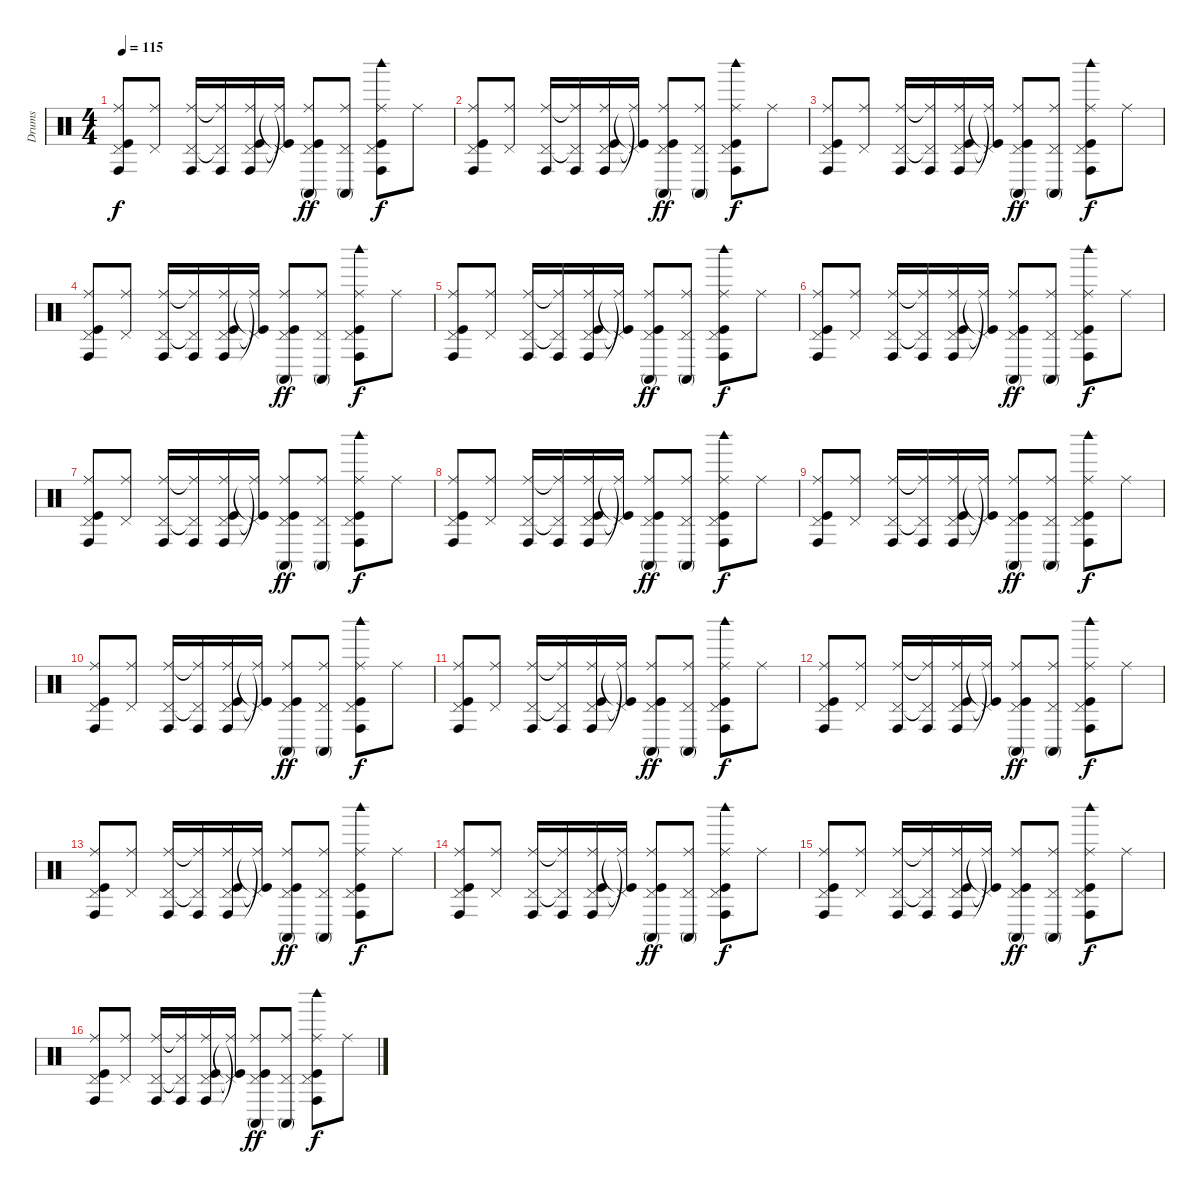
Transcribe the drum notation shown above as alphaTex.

\track ("Drums" "Drums") {instrument percussion}
\staff {score}
\articulation defaults
\ts (4 4)
\tempo 115
\clef neutral
\ks c
("Pedal Hi-Hat (hit)" "Conga high (hit)" "Ride (middle)" "Kick (hit)").8{dy f} ("Pedal Hi-Hat (hit)" "Ride (middle)").8 ("Pedal Hi-Hat (hit)" "Conga high (hit)" "Ride (middle)").16 ("Pedal Hi-Hat (hit)"{t} "Conga high (hit)" "Ride (middle)"{t}).16 ("Pedal Hi-Hat (hit)" "Conga high (hit)" "Ride (middle)" "Kick (hit)").16 ("Pedal Hi-Hat (hit)"{t} "Ride (middle)"{t} "Kick (hit)"{t}).16 ("Pedal Hi-Hat (hit)" "Conga high (mute)" "Ride (middle)" "Kick (hit)").8{dy ff} ("Pedal Hi-Hat (hit)" "Conga high (mute)" "Ride (middle)").8 ("Pedal Hi-Hat (hit)" "Conga high (hit)" "Woodblock high (hit)" "Ride (middle)" "Kick (hit)").8{dy f} "Ride (middle)".8 |
("Pedal Hi-Hat (hit)" "Conga high (hit)" "Ride (middle)" "Kick (hit)").8 ("Pedal Hi-Hat (hit)" "Ride (middle)").8 ("Pedal Hi-Hat (hit)" "Conga high (hit)" "Ride (middle)").16 ("Pedal Hi-Hat (hit)"{t} "Conga high (hit)" "Ride (middle)"{t}).16 ("Pedal Hi-Hat (hit)" "Conga high (hit)" "Ride (middle)" "Kick (hit)").16 ("Pedal Hi-Hat (hit)"{t} "Ride (middle)"{t} "Kick (hit)"{t}).16 ("Pedal Hi-Hat (hit)" "Conga high (mute)" "Ride (middle)" "Kick (hit)").8{dy ff} ("Pedal Hi-Hat (hit)" "Conga high (mute)" "Ride (middle)").8 ("Pedal Hi-Hat (hit)" "Conga high (hit)" "Woodblock high (hit)" "Ride (middle)" "Kick (hit)").8{dy f} "Ride (middle)".8 |
("Pedal Hi-Hat (hit)" "Conga high (hit)" "Ride (middle)" "Kick (hit)").8 ("Pedal Hi-Hat (hit)" "Ride (middle)").8 ("Pedal Hi-Hat (hit)" "Conga high (hit)" "Ride (middle)").16 ("Pedal Hi-Hat (hit)"{t} "Conga high (hit)" "Ride (middle)"{t}).16 ("Pedal Hi-Hat (hit)" "Conga high (hit)" "Ride (middle)" "Kick (hit)").16 ("Pedal Hi-Hat (hit)"{t} "Ride (middle)"{t} "Kick (hit)"{t}).16 ("Pedal Hi-Hat (hit)" "Conga high (mute)" "Ride (middle)" "Kick (hit)").8{dy ff} ("Pedal Hi-Hat (hit)" "Conga high (mute)" "Ride (middle)").8 ("Pedal Hi-Hat (hit)" "Conga high (hit)" "Woodblock high (hit)" "Ride (middle)" "Kick (hit)").8{dy f} "Ride (middle)".8 |
("Pedal Hi-Hat (hit)" "Conga high (hit)" "Ride (middle)" "Kick (hit)").8 ("Pedal Hi-Hat (hit)" "Ride (middle)").8 ("Pedal Hi-Hat (hit)" "Conga high (hit)" "Ride (middle)").16 ("Pedal Hi-Hat (hit)"{t} "Conga high (hit)" "Ride (middle)"{t}).16 ("Pedal Hi-Hat (hit)" "Conga high (hit)" "Ride (middle)" "Kick (hit)").16 ("Pedal Hi-Hat (hit)"{t} "Ride (middle)"{t} "Kick (hit)"{t}).16 ("Pedal Hi-Hat (hit)" "Conga high (mute)" "Ride (middle)" "Kick (hit)").8{dy ff} ("Pedal Hi-Hat (hit)" "Conga high (mute)" "Ride (middle)").8 ("Pedal Hi-Hat (hit)" "Conga high (hit)" "Woodblock high (hit)" "Ride (middle)" "Kick (hit)").8{dy f} "Ride (middle)".8 |
("Pedal Hi-Hat (hit)" "Conga high (hit)" "Ride (middle)" "Kick (hit)").8 ("Pedal Hi-Hat (hit)" "Ride (middle)").8 ("Pedal Hi-Hat (hit)" "Conga high (hit)" "Ride (middle)").16 ("Pedal Hi-Hat (hit)"{t} "Conga high (hit)" "Ride (middle)"{t}).16 ("Pedal Hi-Hat (hit)" "Conga high (hit)" "Ride (middle)" "Kick (hit)").16 ("Pedal Hi-Hat (hit)"{t} "Ride (middle)"{t} "Kick (hit)"{t}).16 ("Pedal Hi-Hat (hit)" "Conga high (mute)" "Ride (middle)" "Kick (hit)").8{dy ff} ("Pedal Hi-Hat (hit)" "Conga high (mute)" "Ride (middle)").8 ("Pedal Hi-Hat (hit)" "Conga high (hit)" "Woodblock high (hit)" "Ride (middle)" "Kick (hit)").8{dy f} "Ride (middle)".8 |
("Pedal Hi-Hat (hit)" "Conga high (hit)" "Ride (middle)" "Kick (hit)").8 ("Pedal Hi-Hat (hit)" "Ride (middle)").8 ("Pedal Hi-Hat (hit)" "Conga high (hit)" "Ride (middle)").16 ("Pedal Hi-Hat (hit)"{t} "Conga high (hit)" "Ride (middle)"{t}).16 ("Pedal Hi-Hat (hit)" "Conga high (hit)" "Ride (middle)" "Kick (hit)").16 ("Pedal Hi-Hat (hit)"{t} "Ride (middle)"{t} "Kick (hit)"{t}).16 ("Pedal Hi-Hat (hit)" "Conga high (mute)" "Ride (middle)" "Kick (hit)").8{dy ff} ("Pedal Hi-Hat (hit)" "Conga high (mute)" "Ride (middle)").8 ("Pedal Hi-Hat (hit)" "Conga high (hit)" "Woodblock high (hit)" "Ride (middle)" "Kick (hit)").8{dy f} "Ride (middle)".8 |
("Pedal Hi-Hat (hit)" "Conga high (hit)" "Ride (middle)" "Kick (hit)").8 ("Pedal Hi-Hat (hit)" "Ride (middle)").8 ("Pedal Hi-Hat (hit)" "Conga high (hit)" "Ride (middle)").16 ("Pedal Hi-Hat (hit)"{t} "Conga high (hit)" "Ride (middle)"{t}).16 ("Pedal Hi-Hat (hit)" "Conga high (hit)" "Ride (middle)" "Kick (hit)").16 ("Pedal Hi-Hat (hit)"{t} "Ride (middle)"{t} "Kick (hit)"{t}).16 ("Pedal Hi-Hat (hit)" "Conga high (mute)" "Ride (middle)" "Kick (hit)").8{dy ff} ("Pedal Hi-Hat (hit)" "Conga high (mute)" "Ride (middle)").8 ("Pedal Hi-Hat (hit)" "Conga high (hit)" "Woodblock high (hit)" "Ride (middle)" "Kick (hit)").8{dy f} "Ride (middle)".8 |
("Pedal Hi-Hat (hit)" "Conga high (hit)" "Ride (middle)" "Kick (hit)").8 ("Pedal Hi-Hat (hit)" "Ride (middle)").8 ("Pedal Hi-Hat (hit)" "Conga high (hit)" "Ride (middle)").16 ("Pedal Hi-Hat (hit)"{t} "Conga high (hit)" "Ride (middle)"{t}).16 ("Pedal Hi-Hat (hit)" "Conga high (hit)" "Ride (middle)" "Kick (hit)").16 ("Pedal Hi-Hat (hit)"{t} "Ride (middle)"{t} "Kick (hit)"{t}).16 ("Pedal Hi-Hat (hit)" "Conga high (mute)" "Ride (middle)" "Kick (hit)").8{dy ff} ("Pedal Hi-Hat (hit)" "Conga high (mute)" "Ride (middle)").8 ("Pedal Hi-Hat (hit)" "Conga high (hit)" "Woodblock high (hit)" "Ride (middle)" "Kick (hit)").8{dy f} "Ride (middle)".8 |
("Pedal Hi-Hat (hit)" "Conga high (hit)" "Ride (middle)" "Kick (hit)").8 ("Pedal Hi-Hat (hit)" "Ride (middle)").8 ("Pedal Hi-Hat (hit)" "Conga high (hit)" "Ride (middle)").16 ("Pedal Hi-Hat (hit)"{t} "Conga high (hit)" "Ride (middle)"{t}).16 ("Pedal Hi-Hat (hit)" "Conga high (hit)" "Ride (middle)" "Kick (hit)").16 ("Pedal Hi-Hat (hit)"{t} "Ride (middle)"{t} "Kick (hit)"{t}).16 ("Pedal Hi-Hat (hit)" "Conga high (mute)" "Ride (middle)" "Kick (hit)").8{dy ff} ("Pedal Hi-Hat (hit)" "Conga high (mute)" "Ride (middle)").8 ("Pedal Hi-Hat (hit)" "Conga high (hit)" "Woodblock high (hit)" "Ride (middle)" "Kick (hit)").8{dy f} "Ride (middle)".8 |
("Pedal Hi-Hat (hit)" "Conga high (hit)" "Ride (middle)" "Kick (hit)").8 ("Pedal Hi-Hat (hit)" "Ride (middle)").8 ("Pedal Hi-Hat (hit)" "Conga high (hit)" "Ride (middle)").16 ("Pedal Hi-Hat (hit)"{t} "Conga high (hit)" "Ride (middle)"{t}).16 ("Pedal Hi-Hat (hit)" "Conga high (hit)" "Ride (middle)" "Kick (hit)").16 ("Pedal Hi-Hat (hit)"{t} "Ride (middle)"{t} "Kick (hit)"{t}).16 ("Pedal Hi-Hat (hit)" "Conga high (mute)" "Ride (middle)" "Kick (hit)").8{dy ff} ("Pedal Hi-Hat (hit)" "Conga high (mute)" "Ride (middle)").8 ("Pedal Hi-Hat (hit)" "Conga high (hit)" "Woodblock high (hit)" "Ride (middle)" "Kick (hit)").8{dy f} "Ride (middle)".8 |
("Pedal Hi-Hat (hit)" "Conga high (hit)" "Ride (middle)" "Kick (hit)").8 ("Pedal Hi-Hat (hit)" "Ride (middle)").8 ("Pedal Hi-Hat (hit)" "Conga high (hit)" "Ride (middle)").16 ("Pedal Hi-Hat (hit)"{t} "Conga high (hit)" "Ride (middle)"{t}).16 ("Pedal Hi-Hat (hit)" "Conga high (hit)" "Ride (middle)" "Kick (hit)").16 ("Pedal Hi-Hat (hit)"{t} "Ride (middle)"{t} "Kick (hit)"{t}).16 ("Pedal Hi-Hat (hit)" "Conga high (mute)" "Ride (middle)" "Kick (hit)").8{dy ff} ("Pedal Hi-Hat (hit)" "Conga high (mute)" "Ride (middle)").8 ("Pedal Hi-Hat (hit)" "Conga high (hit)" "Woodblock high (hit)" "Ride (middle)" "Kick (hit)").8{dy f} "Ride (middle)".8 |
("Pedal Hi-Hat (hit)" "Conga high (hit)" "Ride (middle)" "Kick (hit)").8 ("Pedal Hi-Hat (hit)" "Ride (middle)").8 ("Pedal Hi-Hat (hit)" "Conga high (hit)" "Ride (middle)").16 ("Pedal Hi-Hat (hit)"{t} "Conga high (hit)" "Ride (middle)"{t}).16 ("Pedal Hi-Hat (hit)" "Conga high (hit)" "Ride (middle)" "Kick (hit)").16 ("Pedal Hi-Hat (hit)"{t} "Ride (middle)"{t} "Kick (hit)"{t}).16 ("Pedal Hi-Hat (hit)" "Conga high (mute)" "Ride (middle)" "Kick (hit)").8{dy ff} ("Pedal Hi-Hat (hit)" "Conga high (mute)" "Ride (middle)").8 ("Pedal Hi-Hat (hit)" "Conga high (hit)" "Woodblock high (hit)" "Ride (middle)" "Kick (hit)").8{dy f} "Ride (middle)".8 |
("Pedal Hi-Hat (hit)" "Conga high (hit)" "Ride (middle)" "Kick (hit)").8 ("Pedal Hi-Hat (hit)" "Ride (middle)").8 ("Pedal Hi-Hat (hit)" "Conga high (hit)" "Ride (middle)").16 ("Pedal Hi-Hat (hit)"{t} "Conga high (hit)" "Ride (middle)"{t}).16 ("Pedal Hi-Hat (hit)" "Conga high (hit)" "Ride (middle)" "Kick (hit)").16 ("Pedal Hi-Hat (hit)"{t} "Ride (middle)"{t} "Kick (hit)"{t}).16 ("Pedal Hi-Hat (hit)" "Conga high (mute)" "Ride (middle)" "Kick (hit)").8{dy ff} ("Pedal Hi-Hat (hit)" "Conga high (mute)" "Ride (middle)").8 ("Pedal Hi-Hat (hit)" "Conga high (hit)" "Woodblock high (hit)" "Ride (middle)" "Kick (hit)").8{dy f} "Ride (middle)".8 |
("Pedal Hi-Hat (hit)" "Conga high (hit)" "Ride (middle)" "Kick (hit)").8 ("Pedal Hi-Hat (hit)" "Ride (middle)").8 ("Pedal Hi-Hat (hit)" "Conga high (hit)" "Ride (middle)").16 ("Pedal Hi-Hat (hit)"{t} "Conga high (hit)" "Ride (middle)"{t}).16 ("Pedal Hi-Hat (hit)" "Conga high (hit)" "Ride (middle)" "Kick (hit)").16 ("Pedal Hi-Hat (hit)"{t} "Ride (middle)"{t} "Kick (hit)"{t}).16 ("Pedal Hi-Hat (hit)" "Conga high (mute)" "Ride (middle)" "Kick (hit)").8{dy ff} ("Pedal Hi-Hat (hit)" "Conga high (mute)" "Ride (middle)").8 ("Pedal Hi-Hat (hit)" "Conga high (hit)" "Woodblock high (hit)" "Ride (middle)" "Kick (hit)").8{dy f} "Ride (middle)".8 |
("Pedal Hi-Hat (hit)" "Conga high (hit)" "Ride (middle)" "Kick (hit)").8 ("Pedal Hi-Hat (hit)" "Ride (middle)").8 ("Pedal Hi-Hat (hit)" "Conga high (hit)" "Ride (middle)").16 ("Pedal Hi-Hat (hit)"{t} "Conga high (hit)" "Ride (middle)"{t}).16 ("Pedal Hi-Hat (hit)" "Conga high (hit)" "Ride (middle)" "Kick (hit)").16 ("Pedal Hi-Hat (hit)"{t} "Ride (middle)"{t} "Kick (hit)"{t}).16 ("Pedal Hi-Hat (hit)" "Conga high (mute)" "Ride (middle)" "Kick (hit)").8{dy ff} ("Pedal Hi-Hat (hit)" "Conga high (mute)" "Ride (middle)").8 ("Pedal Hi-Hat (hit)" "Conga high (hit)" "Woodblock high (hit)" "Ride (middle)" "Kick (hit)").8{dy f} "Ride (middle)".8 |
("Pedal Hi-Hat (hit)" "Conga high (hit)" "Ride (middle)" "Kick (hit)").8 ("Pedal Hi-Hat (hit)" "Ride (middle)").8 ("Pedal Hi-Hat (hit)" "Conga high (hit)" "Ride (middle)").16 ("Pedal Hi-Hat (hit)"{t} "Conga high (hit)" "Ride (middle)"{t}).16 ("Pedal Hi-Hat (hit)" "Conga high (hit)" "Ride (middle)" "Kick (hit)").16 ("Pedal Hi-Hat (hit)"{t} "Ride (middle)"{t} "Kick (hit)"{t}).16 ("Pedal Hi-Hat (hit)" "Conga high (mute)" "Ride (middle)" "Kick (hit)").8{dy ff} ("Pedal Hi-Hat (hit)" "Conga high (mute)" "Ride (middle)").8 ("Pedal Hi-Hat (hit)" "Conga high (hit)" "Woodblock high (hit)" "Ride (middle)" "Kick (hit)").8{dy f} "Ride (middle)".8
